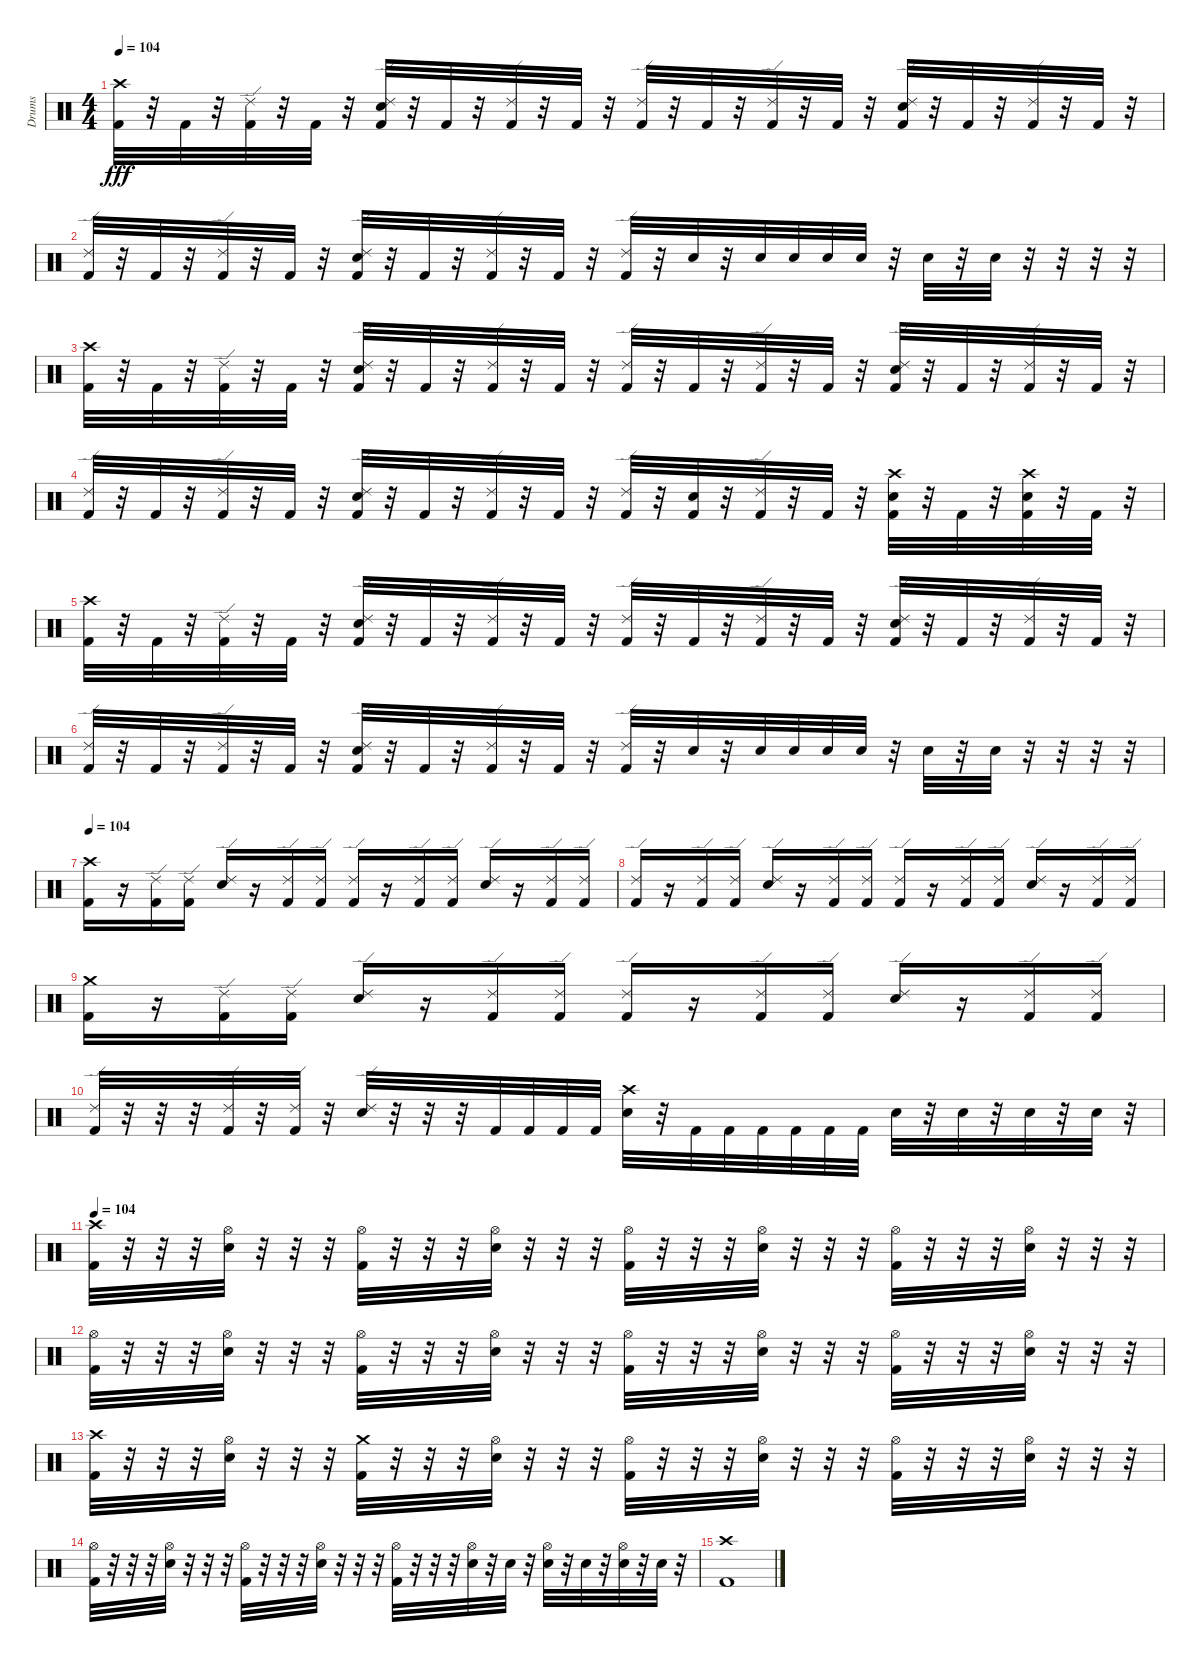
\track ("Drums" "Drums") {instrument percussion}
\staff {score}
\articulation defaults
\ts (4 4)
\tempo 104
\clef neutral
\ks c
("Crash high (hit)" "Kick (hit) 2").32{dy fff} r.32 "Kick (hit) 2".32 r.32 ("Ride (edge) 2" "Kick (hit) 2").32 r.32 "Kick (hit) 2".32 r.32 ("Ride (edge) 2" "Snare (hit) 2" "Kick (hit) 2").32 r.32 "Kick (hit) 2".32 r.32 ("Ride (edge) 2" "Kick (hit) 2").32 r.32 "Kick (hit) 2".32 r.32 ("Ride (edge) 2" "Kick (hit) 2").32 r.32 "Kick (hit) 2".32 r.32 ("Ride (edge) 2" "Kick (hit) 2").32 r.32 "Kick (hit) 2".32 r.32 ("Ride (edge) 2" "Snare (hit) 2" "Kick (hit) 2").32 r.32 "Kick (hit) 2".32 r.32 ("Ride (edge) 2" "Kick (hit) 2").32 r.32 "Kick (hit) 2".32 r.32 |
("Ride (edge) 2" "Kick (hit) 2").32 r.32 "Kick (hit) 2".32 r.32 ("Ride (edge) 2" "Kick (hit) 2").32 r.32 "Kick (hit) 2".32 r.32 ("Ride (edge) 2" "Snare (hit) 2" "Kick (hit) 2").32 r.32 "Kick (hit) 2".32 r.32 ("Ride (edge) 2" "Kick (hit) 2").32 r.32 "Kick (hit) 2".32 r.32 ("Ride (edge) 2" "Kick (hit) 2").32 r.32 "Snare (hit) 2".32 r.32 "Snare (hit) 2".32 "Snare (hit) 2".32 "Snare (hit) 2".32 "Snare (hit) 2".32 r.32 "Snare (hit) 2".32 r.32 "Snare (hit) 2".32 r.32 r.32 r.32 r.32 |
("Crash high (hit)" "Kick (hit) 2").32 r.32 "Kick (hit) 2".32 r.32 ("Ride (edge) 2" "Kick (hit) 2").32 r.32 "Kick (hit) 2".32 r.32 ("Ride (edge) 2" "Snare (hit) 2" "Kick (hit) 2").32 r.32 "Kick (hit) 2".32 r.32 ("Ride (edge) 2" "Kick (hit) 2").32 r.32 "Kick (hit) 2".32 r.32 ("Ride (edge) 2" "Kick (hit) 2").32 r.32 "Kick (hit) 2".32 r.32 ("Ride (edge) 2" "Kick (hit) 2").32 r.32 "Kick (hit) 2".32 r.32 ("Ride (edge) 2" "Snare (hit) 2" "Kick (hit) 2").32 r.32 "Kick (hit) 2".32 r.32 ("Ride (edge) 2" "Kick (hit) 2").32 r.32 "Kick (hit) 2".32 r.32 |
("Ride (edge) 2" "Kick (hit) 2").32 r.32 "Kick (hit) 2".32 r.32 ("Ride (edge) 2" "Kick (hit) 2").32 r.32 "Kick (hit) 2".32 r.32 ("Ride (edge) 2" "Snare (hit) 2" "Kick (hit) 2").32 r.32 "Kick (hit) 2".32 r.32 ("Ride (edge) 2" "Kick (hit) 2").32 r.32 "Kick (hit) 2".32 r.32 ("Ride (edge) 2" "Kick (hit) 2").32 r.32 ("Snare (hit) 2" "Kick (hit) 2").32 r.32 ("Ride (edge) 2" "Kick (hit) 2").32 r.32 "Kick (hit) 2".32 r.32 ("Crash high (hit)" "Snare (hit) 2" "Kick (hit) 2").32 r.32 "Kick (hit) 2".32 r.32 ("Crash high (hit)" "Snare (hit) 2" "Kick (hit) 2").32 r.32 "Kick (hit) 2".32 r.32 |
("Crash high (hit)" "Kick (hit) 2").32 r.32 "Kick (hit) 2".32 r.32 ("Ride (edge) 2" "Kick (hit) 2").32 r.32 "Kick (hit) 2".32 r.32 ("Ride (edge) 2" "Snare (hit) 2" "Kick (hit) 2").32 r.32 "Kick (hit) 2".32 r.32 ("Ride (edge) 2" "Kick (hit) 2").32 r.32 "Kick (hit) 2".32 r.32 ("Ride (edge) 2" "Kick (hit) 2").32 r.32 "Kick (hit) 2".32 r.32 ("Ride (edge) 2" "Kick (hit) 2").32 r.32 "Kick (hit) 2".32 r.32 ("Ride (edge) 2" "Snare (hit) 2" "Kick (hit) 2").32 r.32 "Kick (hit) 2".32 r.32 ("Ride (edge) 2" "Kick (hit) 2").32 r.32 "Kick (hit) 2".32 r.32 |
("Ride (edge) 2" "Kick (hit) 2").32 r.32 "Kick (hit) 2".32 r.32 ("Ride (edge) 2" "Kick (hit) 2").32 r.32 "Kick (hit) 2".32 r.32 ("Ride (edge) 2" "Snare (hit) 2" "Kick (hit) 2").32 r.32 "Kick (hit) 2".32 r.32 ("Ride (edge) 2" "Kick (hit) 2").32 r.32 "Kick (hit) 2".32 r.32 ("Ride (edge) 2" "Kick (hit) 2").32 r.32 "Snare (hit) 2".32 r.32 "Snare (hit) 2".32 "Snare (hit) 2".32 "Snare (hit) 2".32 "Snare (hit) 2".32 r.32 "Snare (hit) 2".32 r.32 "Snare (hit) 2".32 r.32 r.32 r.32 r.32 |
\tempo 104
("Crash high (hit)" "Kick (hit) 2").16 r.16 ("Ride (edge) 2" "Kick (hit) 2").16 ("Ride (edge) 2" "Kick (hit) 2").16 ("Ride (edge) 2" "Snare (hit) 2").16 r.16 ("Ride (edge) 2" "Kick (hit) 2").16 ("Ride (edge) 2" "Kick (hit) 2").16 ("Ride (edge) 2" "Kick (hit) 2").16 r.16 ("Ride (edge) 2" "Kick (hit) 2").16 ("Ride (edge) 2" "Kick (hit) 2").16 ("Ride (edge) 2" "Snare (hit) 2").16 r.16 ("Ride (edge) 2" "Kick (hit) 2").16 ("Ride (edge) 2" "Kick (hit) 2").16 |
("Ride (edge) 2" "Kick (hit) 2").16 r.16 ("Ride (edge) 2" "Kick (hit) 2").16 ("Ride (edge) 2" "Kick (hit) 2").16 ("Ride (edge) 2" "Snare (hit) 2").16 r.16 ("Ride (edge) 2" "Kick (hit) 2").16 ("Ride (edge) 2" "Kick (hit) 2").16 ("Ride (edge) 2" "Kick (hit) 2").16 r.16 ("Ride (edge) 2" "Kick (hit) 2").16 ("Ride (edge) 2" "Kick (hit) 2").16 ("Ride (edge) 2" "Snare (hit) 2").16 r.16 ("Ride (edge) 2" "Kick (hit) 2").16 ("Ride (edge) 2" "Kick (hit) 2").16 |
("Crash medium (hit)" "Kick (hit) 2").16 r.16 ("Ride (edge) 2" "Kick (hit) 2").16 ("Ride (edge) 2" "Kick (hit) 2").16 ("Ride (edge) 2" "Snare (hit) 2").16 r.16 ("Ride (edge) 2" "Kick (hit) 2").16 ("Ride (edge) 2" "Kick (hit) 2").16 ("Ride (edge) 2" "Kick (hit) 2").16 r.16 ("Ride (edge) 2" "Kick (hit) 2").16 ("Ride (edge) 2" "Kick (hit) 2").16 ("Ride (edge) 2" "Snare (hit) 2").16 r.16 ("Ride (edge) 2" "Kick (hit) 2").16 ("Ride (edge) 2" "Kick (hit) 2").16 |
("Ride (edge) 2" "Kick (hit) 2").32 r.32 r.32 r.32 ("Ride (edge) 2" "Kick (hit) 2").32 r.32 ("Ride (edge) 2" "Kick (hit) 2").32 r.32 ("Ride (edge) 2" "Snare (hit) 2").32 r.32 r.32 r.32 "Kick (hit) 2".32 "Kick (hit) 2".32 "Kick (hit) 2".32 "Kick (hit) 2".32 ("Crash high (hit)" "Snare (hit) 2").32 r.32 "Kick (hit) 2".32 "Kick (hit) 2".32 "Kick (hit) 2".32 "Kick (hit) 2".32 "Kick (hit) 2".32 "Kick (hit) 2".32 "Snare (hit) 2".32 r.32 "Snare (hit) 2".32 r.32 "Snare (hit) 2".32 r.32 "Snare (hit) 2".32 r.32 |
\tempo 104
("Crash high (hit)" "Kick (hit) 2").32 r.32 r.32 r.32 ("Hi-Hat (open)" "Snare (hit) 2").32 r.32 r.32 r.32 ("Hi-Hat (open)" "Kick (hit) 2").32 r.32 r.32 r.32 ("Hi-Hat (open)" "Snare (hit) 2").32 r.32 r.32 r.32 ("Hi-Hat (open)" "Kick (hit) 2").32 r.32 r.32 r.32 ("Hi-Hat (open)" "Snare (hit) 2").32 r.32 r.32 r.32 ("Hi-Hat (open)" "Kick (hit) 2").32 r.32 r.32 r.32 ("Hi-Hat (open)" "Snare (hit) 2").32 r.32 r.32 r.32 |
("Hi-Hat (open)" "Kick (hit) 2").32 r.32 r.32 r.32 ("Hi-Hat (open)" "Snare (hit) 2").32 r.32 r.32 r.32 ("Hi-Hat (open)" "Kick (hit) 2").32 r.32 r.32 r.32 ("Hi-Hat (open)" "Snare (hit) 2").32 r.32 r.32 r.32 ("Hi-Hat (open)" "Kick (hit) 2").32 r.32 r.32 r.32 ("Hi-Hat (open)" "Snare (hit) 2").32 r.32 r.32 r.32 ("Hi-Hat (open)" "Kick (hit) 2").32 r.32 r.32 r.32 ("Hi-Hat (open)" "Snare (hit) 2").32 r.32 r.32 r.32 |
("Crash high (hit)" "Kick (hit) 2").32 r.32 r.32 r.32 ("Hi-Hat (open)" "Snare (hit) 2").32 r.32 r.32 r.32 ("Crash medium (hit)" "Kick (hit) 2").32 r.32 r.32 r.32 ("Hi-Hat (open)" "Snare (hit) 2").32 r.32 r.32 r.32 ("Hi-Hat (open)" "Kick (hit) 2").32 r.32 r.32 r.32 ("Hi-Hat (open)" "Snare (hit) 2").32 r.32 r.32 r.32 ("Hi-Hat (open)" "Kick (hit) 2").32 r.32 r.32 r.32 ("Hi-Hat (open)" "Snare (hit) 2").32 r.32 r.32 r.32 |
("Hi-Hat (open)" "Kick (hit) 2").32 r.32 r.32 r.32 ("Hi-Hat (open)" "Snare (hit) 2").32 r.32 r.32 r.32 ("Hi-Hat (open)" "Kick (hit) 2").32 r.32 r.32 r.32 ("Hi-Hat (open)" "Snare (hit) 2").32 r.32 r.32 r.32 ("Hi-Hat (open)" "Kick (hit) 2").32 r.32 r.32 r.32 ("Hi-Hat (open)" "Snare (hit) 2").32 r.32 "Snare (hit) 2".32 r.32 ("Hi-Hat (open)" "Snare (hit) 2").32 r.32 "Snare (hit) 2".32 r.32 ("Hi-Hat (open)" "Snare (hit) 2").32 r.32 "Snare (hit) 2".32 r.32 |
("Crash high (hit)" "Kick (hit) 2").1
